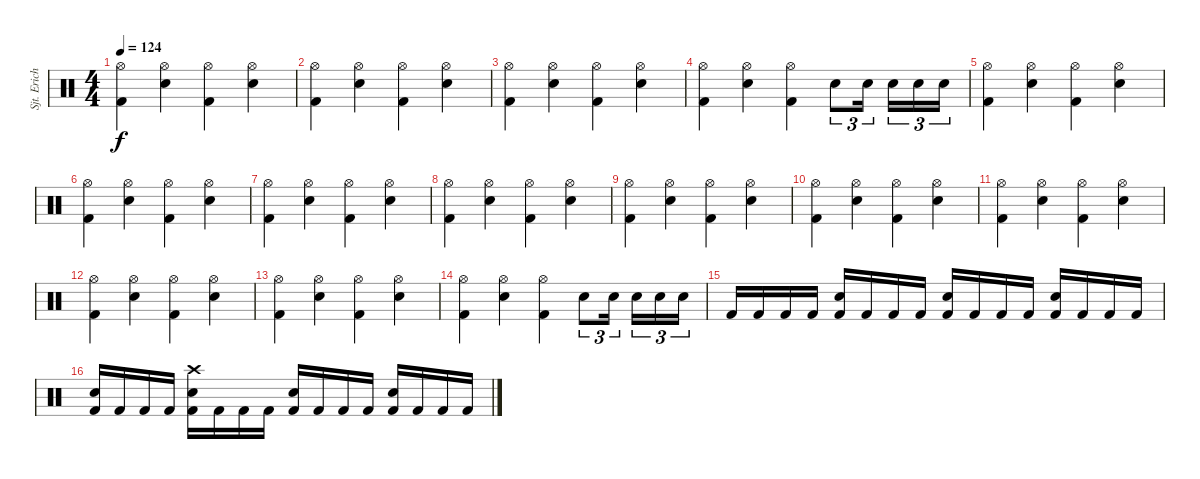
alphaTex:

\track ("Sjt. Erichsen" "Sjt. Erich") {instrument percussion}
\staff {score}
\articulation defaults
\ts (4 4)
\tempo 124
\clef neutral
\ks c
("Hi-Hat (open)" "Kick (hit) 2").4{dy f} ("Hi-Hat (open)" "Electric Snare (hit)").4 ("Hi-Hat (open)" "Kick (hit) 2").4 ("Hi-Hat (open)" "Electric Snare (hit)").4 |
("Hi-Hat (open)" "Kick (hit) 2").4 ("Hi-Hat (open)" "Electric Snare (hit)").4 ("Hi-Hat (open)" "Kick (hit) 2").4 ("Hi-Hat (open)" "Electric Snare (hit)").4 |
("Hi-Hat (open)" "Kick (hit) 2").4 ("Hi-Hat (open)" "Electric Snare (hit)").4 ("Hi-Hat (open)" "Kick (hit) 2").4 ("Hi-Hat (open)" "Electric Snare (hit)").4 |
("Hi-Hat (open)" "Kick (hit) 2").4 ("Hi-Hat (open)" "Electric Snare (hit)").4 ("Hi-Hat (open)" "Kick (hit) 2").4 "Electric Snare (hit)".8{tu (3 2)} "Electric Snare (hit)".16{tu (3 2) beam splitsecondary} "Electric Snare (hit)".16{tu (3 2)} "Electric Snare (hit)".16{tu (3 2)} "Electric Snare (hit)".16{tu (3 2)} |
("Hi-Hat (open)" "Kick (hit) 2").4 ("Hi-Hat (open)" "Electric Snare (hit)").4 ("Hi-Hat (open)" "Kick (hit) 2").4 ("Hi-Hat (open)" "Electric Snare (hit)").4 |
("Hi-Hat (open)" "Kick (hit) 2").4 ("Hi-Hat (open)" "Electric Snare (hit)").4 ("Hi-Hat (open)" "Kick (hit) 2").4 ("Hi-Hat (open)" "Electric Snare (hit)").4 |
("Hi-Hat (open)" "Kick (hit) 2").4 ("Hi-Hat (open)" "Electric Snare (hit)").4 ("Hi-Hat (open)" "Kick (hit) 2").4 ("Hi-Hat (open)" "Electric Snare (hit)").4 |
("Hi-Hat (open)" "Kick (hit) 2").4 ("Hi-Hat (open)" "Electric Snare (hit)").4 ("Hi-Hat (open)" "Kick (hit) 2").4 ("Hi-Hat (open)" "Electric Snare (hit)").4 |
("Hi-Hat (open)" "Kick (hit) 2").4 ("Hi-Hat (open)" "Electric Snare (hit)").4 ("Hi-Hat (open)" "Kick (hit) 2").4 ("Hi-Hat (open)" "Electric Snare (hit)").4 |
("Hi-Hat (open)" "Kick (hit) 2").4 ("Hi-Hat (open)" "Electric Snare (hit)").4 ("Hi-Hat (open)" "Kick (hit) 2").4 ("Hi-Hat (open)" "Electric Snare (hit)").4 |
("Hi-Hat (open)" "Kick (hit) 2").4 ("Hi-Hat (open)" "Electric Snare (hit)").4 ("Hi-Hat (open)" "Kick (hit) 2").4 ("Hi-Hat (open)" "Electric Snare (hit)").4 |
("Hi-Hat (open)" "Kick (hit) 2").4 ("Hi-Hat (open)" "Electric Snare (hit)").4 ("Hi-Hat (open)" "Kick (hit) 2").4 ("Hi-Hat (open)" "Electric Snare (hit)").4 |
("Hi-Hat (open)" "Kick (hit) 2").4 ("Hi-Hat (open)" "Electric Snare (hit)").4 ("Hi-Hat (open)" "Kick (hit) 2").4 ("Hi-Hat (open)" "Electric Snare (hit)").4 |
("Hi-Hat (open)" "Kick (hit) 2").4 ("Hi-Hat (open)" "Electric Snare (hit)").4 ("Hi-Hat (open)" "Kick (hit) 2").4 "Electric Snare (hit)".8{tu (3 2)} "Electric Snare (hit)".16{tu (3 2) beam splitsecondary} "Electric Snare (hit)".16{tu (3 2)} "Electric Snare (hit)".16{tu (3 2)} "Electric Snare (hit)".16{tu (3 2)} |
"Kick (hit) 2".16 "Kick (hit) 2".16 "Kick (hit) 2".16 "Kick (hit) 2".16 ("Electric Snare (hit)" "Kick (hit) 2").16 "Kick (hit) 2".16 "Kick (hit) 2".16 "Kick (hit) 2".16 ("Electric Snare (hit)" "Kick (hit) 2").16 "Kick (hit) 2".16 "Kick (hit) 2".16 "Kick (hit) 2".16 ("Electric Snare (hit)" "Kick (hit) 2").16 "Kick (hit) 2".16 "Kick (hit) 2".16 "Kick (hit) 2".16 |
("Electric Snare (hit)" "Kick (hit) 2").16 "Kick (hit) 2".16 "Kick (hit) 2".16 "Kick (hit) 2".16 ("Crash high (hit)" "Electric Snare (hit)" "Kick (hit) 2").16 "Kick (hit) 2".16 "Kick (hit) 2".16 "Kick (hit) 2".16 ("Electric Snare (hit)" "Kick (hit) 2").16 "Kick (hit) 2".16 "Kick (hit) 2".16 "Kick (hit) 2".16 ("Electric Snare (hit)" "Kick (hit) 2").16 "Kick (hit) 2".16 "Kick (hit) 2".16 "Kick (hit) 2".16
